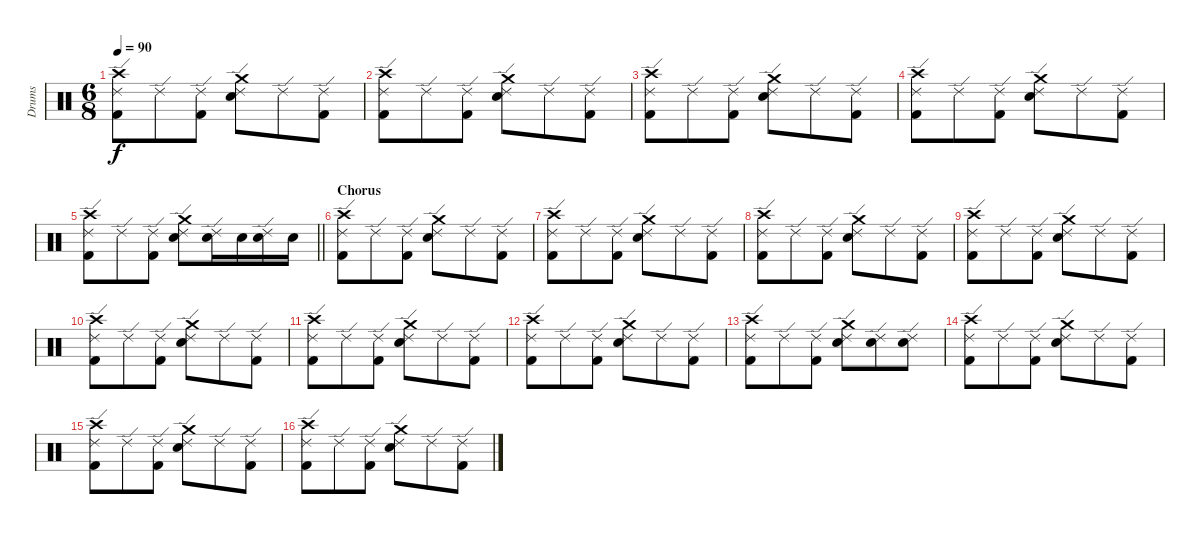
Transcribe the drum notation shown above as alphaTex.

\track ("Drums" "Drums") {instrument percussion}
\staff {score}
\articulation defaults
\ts (6 8)
\tempo 90
\clef neutral
\ks c
("Ride (edge) 2" "Kick (hit) 2" "Crash high (hit)").8{dy f} "Ride (edge) 2".8 ("Ride (edge) 2" "Kick (hit) 2").8 ("Ride (edge) 2" "Snare (hit) 2" "Crash medium (hit)").8 "Ride (edge) 2".8 ("Ride (edge) 2" "Kick (hit) 2").8 |
("Ride (edge) 2" "Kick (hit) 2" "Crash high (hit)").8 "Ride (edge) 2".8 ("Ride (edge) 2" "Kick (hit) 2").8 ("Ride (edge) 2" "Snare (hit) 2" "Crash medium (hit)").8 "Ride (edge) 2".8 ("Ride (edge) 2" "Kick (hit) 2").8 |
("Ride (edge) 2" "Kick (hit) 2" "Crash high (hit)").8 "Ride (edge) 2".8 ("Ride (edge) 2" "Kick (hit) 2").8 ("Ride (edge) 2" "Snare (hit) 2" "Crash medium (hit)").8 "Ride (edge) 2".8 ("Ride (edge) 2" "Kick (hit) 2").8 |
("Ride (edge) 2" "Kick (hit) 2" "Crash high (hit)").8 "Ride (edge) 2".8 ("Ride (edge) 2" "Kick (hit) 2").8 ("Ride (edge) 2" "Snare (hit) 2" "Crash medium (hit)").8 "Ride (edge) 2".8 ("Ride (edge) 2" "Kick (hit) 2").8 |
\barLineRight lightlight
("Ride (edge) 2" "Kick (hit) 2" "Crash high (hit)").8 "Ride (edge) 2".8 ("Ride (edge) 2" "Kick (hit) 2").8 ("Ride (edge) 2" "Snare (hit) 2" "Crash medium (hit)").8 ("Ride (edge) 2" "Snare (hit) 2").16 "Snare (hit) 2".16 ("Ride (edge) 2" "Snare (hit) 2").16 "Snare (hit) 2".16 |
\section ("" "Chorus")
("Ride (edge) 2" "Kick (hit) 2" "Crash high (hit)").8 "Ride (edge) 2".8 ("Ride (edge) 2" "Kick (hit) 2").8 ("Ride (edge) 2" "Snare (hit) 2" "Crash medium (hit)").8 "Ride (edge) 2".8 ("Ride (edge) 2" "Kick (hit) 2").8 |
("Ride (edge) 2" "Kick (hit) 2" "Crash high (hit)").8 "Ride (edge) 2".8 ("Ride (edge) 2" "Kick (hit) 2").8 ("Ride (edge) 2" "Snare (hit) 2" "Crash medium (hit)").8 "Ride (edge) 2".8 ("Ride (edge) 2" "Kick (hit) 2").8 |
("Ride (edge) 2" "Kick (hit) 2" "Crash high (hit)").8 "Ride (edge) 2".8 ("Ride (edge) 2" "Kick (hit) 2").8 ("Ride (edge) 2" "Snare (hit) 2" "Crash medium (hit)").8 "Ride (edge) 2".8 ("Ride (edge) 2" "Kick (hit) 2").8 |
("Ride (edge) 2" "Kick (hit) 2" "Crash high (hit)").8 "Ride (edge) 2".8 ("Ride (edge) 2" "Kick (hit) 2").8 ("Ride (edge) 2" "Snare (hit) 2" "Crash medium (hit)").8 "Ride (edge) 2".8 ("Ride (edge) 2" "Kick (hit) 2").8 |
("Ride (edge) 2" "Kick (hit) 2" "Crash high (hit)").8 "Ride (edge) 2".8 ("Ride (edge) 2" "Kick (hit) 2").8 ("Ride (edge) 2" "Snare (hit) 2" "Crash medium (hit)").8 "Ride (edge) 2".8 ("Ride (edge) 2" "Kick (hit) 2").8 |
("Ride (edge) 2" "Kick (hit) 2" "Crash high (hit)").8 "Ride (edge) 2".8 ("Ride (edge) 2" "Kick (hit) 2").8 ("Ride (edge) 2" "Snare (hit) 2" "Crash medium (hit)").8 "Ride (edge) 2".8 ("Ride (edge) 2" "Kick (hit) 2").8 |
("Ride (edge) 2" "Kick (hit) 2" "Crash high (hit)").8 "Ride (edge) 2".8 ("Ride (edge) 2" "Kick (hit) 2").8 ("Ride (edge) 2" "Snare (hit) 2" "Crash medium (hit)").8 "Ride (edge) 2".8 ("Ride (edge) 2" "Kick (hit) 2").8 |
("Ride (edge) 2" "Kick (hit) 2" "Crash high (hit)").8 "Ride (edge) 2".8 ("Ride (edge) 2" "Kick (hit) 2").8 ("Ride (edge) 2" "Snare (hit) 2" "Crash medium (hit)").8 ("Ride (edge) 2" "Snare (hit) 2").8 ("Ride (edge) 2" "Snare (hit) 2").8 |
("Ride (edge) 2" "Kick (hit) 2" "Crash high (hit)").8 "Ride (edge) 2".8 ("Ride (edge) 2" "Kick (hit) 2").8 ("Ride (edge) 2" "Snare (hit) 2" "Crash medium (hit)").8 "Ride (edge) 2".8 ("Ride (edge) 2" "Kick (hit) 2").8 |
("Ride (edge) 2" "Kick (hit) 2" "Crash high (hit)").8 "Ride (edge) 2".8 ("Ride (edge) 2" "Kick (hit) 2").8 ("Ride (edge) 2" "Snare (hit) 2" "Crash medium (hit)").8 "Ride (edge) 2".8 ("Ride (edge) 2" "Kick (hit) 2").8 |
("Ride (edge) 2" "Kick (hit) 2" "Crash high (hit)").8 "Ride (edge) 2".8 ("Ride (edge) 2" "Kick (hit) 2").8 ("Ride (edge) 2" "Snare (hit) 2" "Crash medium (hit)").8 "Ride (edge) 2".8 ("Ride (edge) 2" "Kick (hit) 2").8
